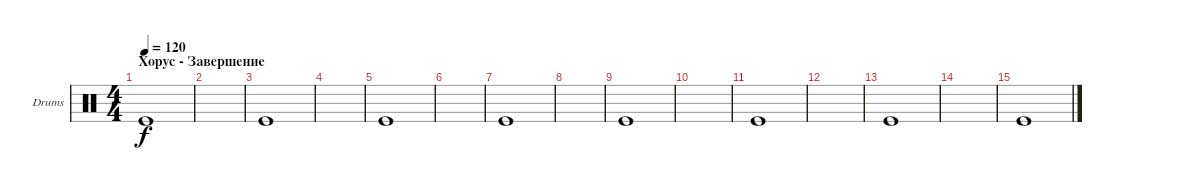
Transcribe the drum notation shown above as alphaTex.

\defaultSystemsLayout 4
\bracketExtendMode groupsimilarinstruments
\firstSystemTrackNameOrientation horizontal
\otherSystemsTrackNameOrientation horizontal
\track ("Drum" "Drums") {instrument percussion}
\staff {score}
\articulation defaults
\ts (4 4)
\section ("" "Хорус - Завершение")
\tempo 120
\clef neutral
\ks c "Kick (hit)".1{dy f}
|
|
"Kick (hit)".1 |
|
"Kick (hit)".1 |
|
"Kick (hit)".1 |
|
"Kick (hit)".1 |
|
"Kick (hit)".1 |
|
"Kick (hit)".1 |
|
"Kick (hit)".1
